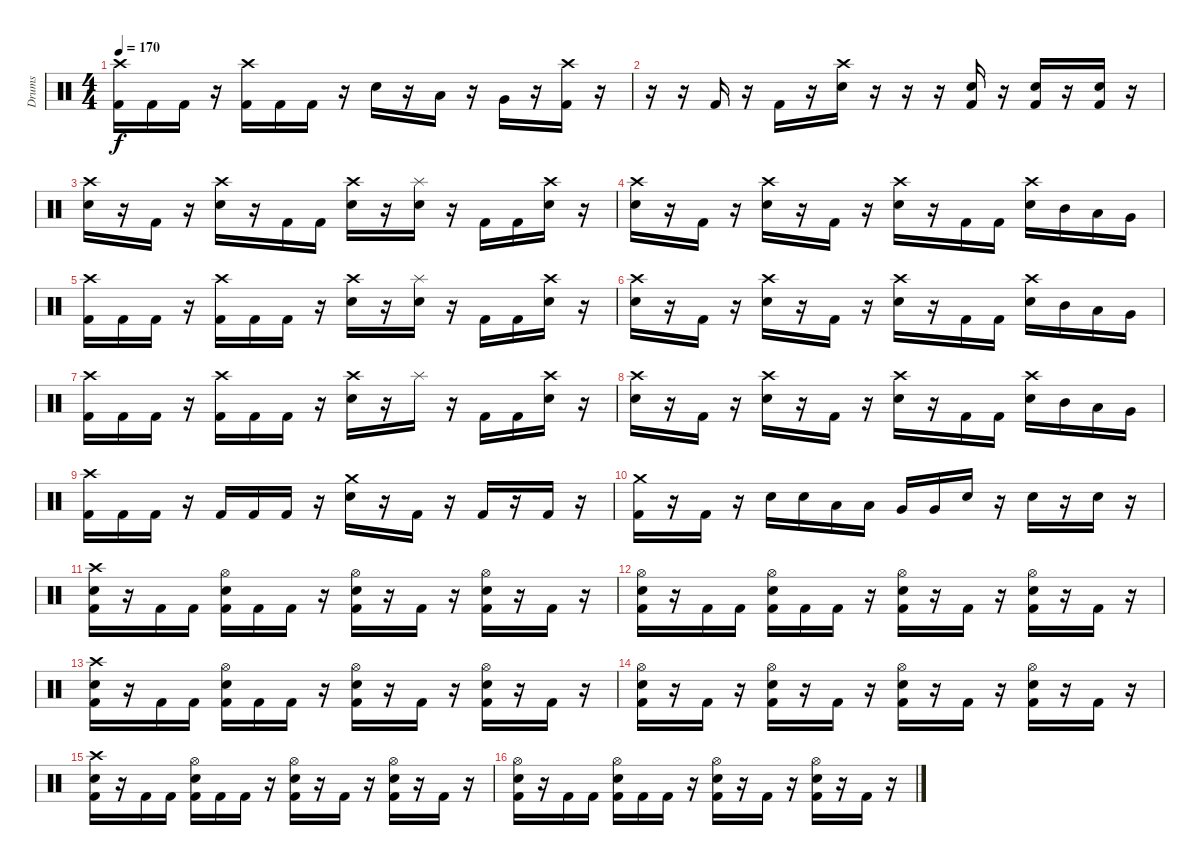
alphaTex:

\track ("Drums" "Drums") {instrument percussion}
\staff {score}
\articulation defaults
\ts (4 4)
\tempo 170
\clef neutral
\ks c
("Crash high (hit)" "Kick (hit) 2").16{dy f} "Kick (hit) 2".16 "Kick (hit) 2".16 r.16 ("Crash high (hit)" "Kick (hit) 2").16 "Kick (hit) 2".16 "Kick (hit) 2".16 r.16 "Electric Snare (hit)".16 r.16 "Low Tom (hit)".16 r.16 "Very Low Tom (hit)".16 r.16 ("Crash high (hit)" "Kick (hit) 2").16 r.16 |
r.16 r.16 "Kick (hit) 2".16 r.16 "Kick (hit) 2".16 r.16 ("Crash high (hit)" "Electric Snare (hit)").16 r.16 r.16 r.16 ("Electric Snare (hit)" "Kick (hit) 2").16 r.16 ("Electric Snare (hit)" "Kick (hit) 2").16 r.16 ("Electric Snare (hit)" "Kick (hit) 2").16 r.16 |
("Crash high (hit)" "Electric Snare (hit)").16 r.16 "Kick (hit) 2".16 r.16 ("Crash high (hit)" "Electric Snare (hit)").16 r.16 "Kick (hit) 2".16 "Kick (hit) 2".16 ("Crash high (hit)" "Electric Snare (hit)").16 r.16 ("Splash (hit)" "Electric Snare (hit)").16 r.16 "Kick (hit) 2".16 "Kick (hit) 2".16 ("Crash high (hit)" "Electric Snare (hit)").16 r.16 |
("Crash high (hit)" "Electric Snare (hit)").16 r.16 "Kick (hit) 2".16 r.16 ("Crash high (hit)" "Electric Snare (hit)").16 r.16 "Kick (hit) 2".16 r.16 ("Crash high (hit)" "Electric Snare (hit)").16 r.16 "Kick (hit) 2".16 "Kick (hit) 2".16 ("Crash high (hit)" "Electric Snare (hit)").16 "Mid Tom (hit)".16 "Low Tom (hit)".16 "Very Low Tom (hit)".16 |
("Crash high (hit)" "Kick (hit) 2").16 "Kick (hit) 2".16 "Kick (hit) 2".16 r.16 ("Crash high (hit)" "Kick (hit) 2").16 "Kick (hit) 2".16 "Kick (hit) 2".16 r.16 ("Crash high (hit)" "Electric Snare (hit)").16 r.16 ("Splash (hit)" "Electric Snare (hit)").16 r.16 "Kick (hit) 2".16 "Kick (hit) 2".16 ("Crash high (hit)" "Electric Snare (hit)").16 r.16 |
("Crash high (hit)" "Electric Snare (hit)").16 r.16 "Kick (hit) 2".16 r.16 ("Crash high (hit)" "Electric Snare (hit)").16 r.16 "Kick (hit) 2".16 r.16 ("Crash high (hit)" "Electric Snare (hit)").16 r.16 "Kick (hit) 2".16 "Kick (hit) 2".16 ("Crash high (hit)" "Electric Snare (hit)").16 "Mid Tom (hit)".16 "Low Tom (hit)".16 "Very Low Tom (hit)".16 |
("Crash high (hit)" "Kick (hit) 2").16 "Kick (hit) 2".16 "Kick (hit) 2".16 r.16 ("Crash high (hit)" "Kick (hit) 2").16 "Kick (hit) 2".16 "Kick (hit) 2".16 r.16 ("Crash high (hit)" "Electric Snare (hit)").16 r.16 "Splash (hit)".16 r.16 "Kick (hit) 2".16 "Kick (hit) 2".16 ("Crash high (hit)" "Electric Snare (hit)").16 r.16 |
("Crash high (hit)" "Electric Snare (hit)").16 r.16 "Kick (hit) 2".16 r.16 ("Crash high (hit)" "Electric Snare (hit)").16 r.16 "Kick (hit) 2".16 r.16 ("Crash high (hit)" "Electric Snare (hit)").16 r.16 "Kick (hit) 2".16 "Kick (hit) 2".16 ("Crash high (hit)" "Electric Snare (hit)").16 "Mid Tom (hit)".16 "Low Tom (hit)".16 "Very Low Tom (hit)".16 |
("Crash high (hit)" "Kick (hit) 2").16 "Kick (hit) 2".16 "Kick (hit) 2".16 r.16 "Kick (hit) 2".16 "Kick (hit) 2".16 "Kick (hit) 2".16 r.16 ("Crash medium (hit)" "Electric Snare (hit)").16 r.16 "Kick (hit) 2".16 r.16 "Kick (hit) 2".16 r.16 "Kick (hit) 2".16 r.16 |
("Crash medium (hit)" "Kick (hit) 2").16 r.16 "Kick (hit) 2".16 r.16 "Electric Snare (hit)".16 "Electric Snare (hit)".16 "Low Tom (hit)".16 "Low Tom (hit)".16 "Very Low Tom (hit)".16 "Very Low Tom (hit)".16 "Electric Snare (hit)".16 r.16 "Electric Snare (hit)".16 r.16 "Electric Snare (hit)".16 r.16 |
("Crash high (hit)" "Electric Snare (hit)" "Kick (hit) 2").16 r.16 "Kick (hit) 2".16 "Kick (hit) 2".16 ("Hi-Hat (open)" "Electric Snare (hit)" "Kick (hit) 2").16 "Kick (hit) 2".16 "Kick (hit) 2".16 r.16 ("Hi-Hat (open)" "Electric Snare (hit)" "Kick (hit) 2").16 r.16 "Kick (hit) 2".16 r.16 ("Hi-Hat (open)" "Electric Snare (hit)" "Kick (hit) 2").16 r.16 "Kick (hit) 2".16 r.16 |
("Hi-Hat (open)" "Electric Snare (hit)" "Kick (hit) 2").16 r.16 "Kick (hit) 2".16 "Kick (hit) 2".16 ("Hi-Hat (open)" "Electric Snare (hit)" "Kick (hit) 2").16 "Kick (hit) 2".16 "Kick (hit) 2".16 r.16 ("Hi-Hat (open)" "Electric Snare (hit)" "Kick (hit) 2").16 r.16 "Kick (hit) 2".16 r.16 ("Hi-Hat (open)" "Electric Snare (hit)" "Kick (hit) 2").16 r.16 "Kick (hit) 2".16 r.16 |
("Crash high (hit)" "Electric Snare (hit)" "Kick (hit) 2").16 r.16 "Kick (hit) 2".16 "Kick (hit) 2".16 ("Hi-Hat (open)" "Electric Snare (hit)" "Kick (hit) 2").16 "Kick (hit) 2".16 "Kick (hit) 2".16 r.16 ("Hi-Hat (open)" "Electric Snare (hit)" "Kick (hit) 2").16 r.16 "Kick (hit) 2".16 r.16 ("Hi-Hat (open)" "Electric Snare (hit)" "Kick (hit) 2").16 r.16 "Kick (hit) 2".16 r.16 |
("Hi-Hat (open)" "Electric Snare (hit)" "Kick (hit) 2").16 r.16 "Kick (hit) 2".16 r.16 ("Hi-Hat (open)" "Electric Snare (hit)" "Kick (hit) 2").16 r.16 "Kick (hit) 2".16 r.16 ("Hi-Hat (open)" "Electric Snare (hit)" "Kick (hit) 2").16 r.16 "Kick (hit) 2".16 r.16 ("Hi-Hat (open)" "Electric Snare (hit)" "Kick (hit) 2").16 r.16 "Kick (hit) 2".16 r.16 |
("Crash high (hit)" "Electric Snare (hit)" "Kick (hit) 2").16 r.16 "Kick (hit) 2".16 "Kick (hit) 2".16 ("Hi-Hat (open)" "Electric Snare (hit)" "Kick (hit) 2").16 "Kick (hit) 2".16 "Kick (hit) 2".16 r.16 ("Hi-Hat (open)" "Electric Snare (hit)" "Kick (hit) 2").16 r.16 "Kick (hit) 2".16 r.16 ("Hi-Hat (open)" "Electric Snare (hit)" "Kick (hit) 2").16 r.16 "Kick (hit) 2".16 r.16 |
("Hi-Hat (open)" "Electric Snare (hit)" "Kick (hit) 2").16 r.16 "Kick (hit) 2".16 "Kick (hit) 2".16 ("Hi-Hat (open)" "Electric Snare (hit)" "Kick (hit) 2").16 "Kick (hit) 2".16 "Kick (hit) 2".16 r.16 ("Hi-Hat (open)" "Electric Snare (hit)" "Kick (hit) 2").16 r.16 "Kick (hit) 2".16 r.16 ("Hi-Hat (open)" "Electric Snare (hit)" "Kick (hit) 2").16 r.16 "Kick (hit) 2".16 r.16
